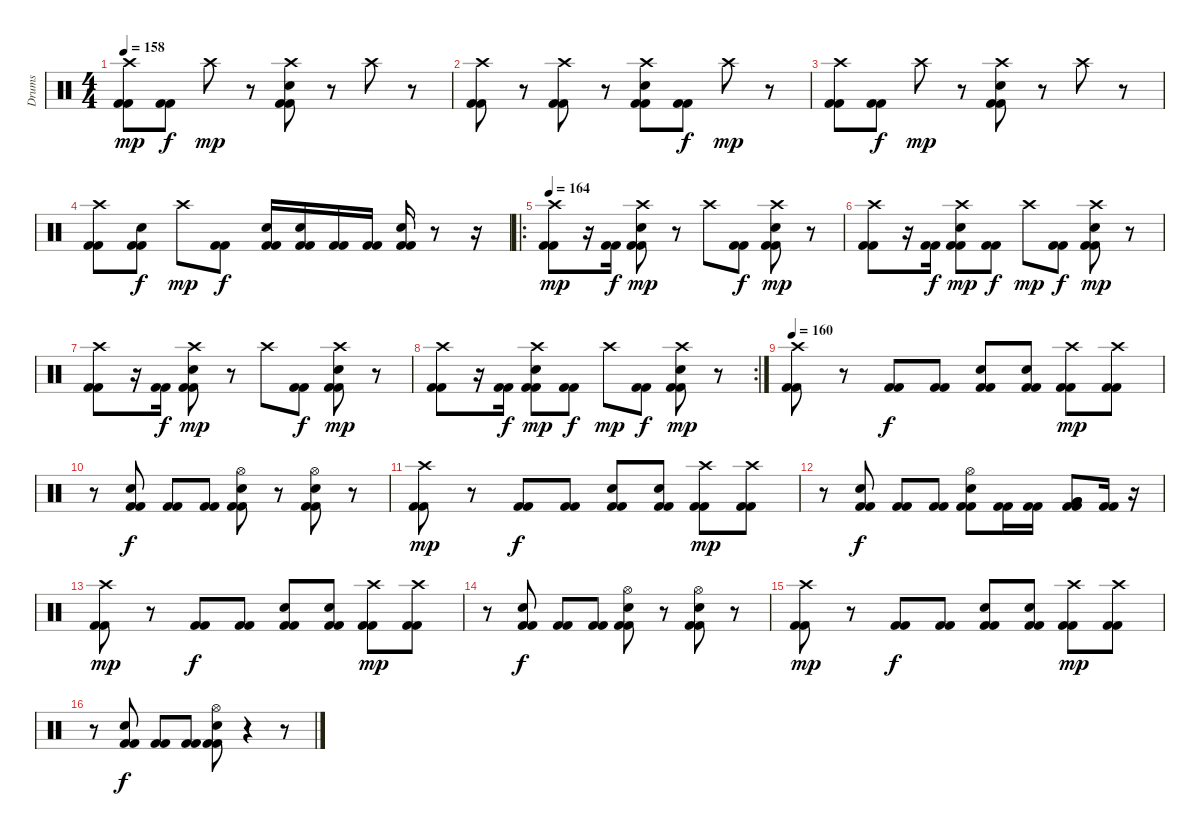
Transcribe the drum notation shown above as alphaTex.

\track ("Drums" "Drums") {instrument percussion}
\staff {score}
\articulation defaults
\ts (4 4)
\tempo 158
\clef neutral
\ks c
("Crash high (hit)" "Kick (hit) 2" "Kick (hit) 2").8{dy mp} ("Kick (hit) 2" "Kick (hit) 2").8{dy f} "Crash high (hit)".8{dy mp} r.8 ("Crash high (hit)" "Snare (hit) 2" "Kick (hit) 2" "Kick (hit) 2").8 r.8 "Crash high (hit)".8 r.8 |
("Crash high (hit)" "Kick (hit) 2" "Kick (hit) 2").8 r.8 ("Crash high (hit)" "Kick (hit) 2" "Kick (hit) 2").8 r.8 ("Crash high (hit)" "Snare (hit) 2" "Kick (hit) 2" "Kick (hit) 2").8 ("Kick (hit) 2" "Kick (hit) 2").8{dy f} "Crash high (hit)".8{dy mp} r.8 |
("Crash high (hit)" "Kick (hit) 2" "Kick (hit) 2").8 ("Kick (hit) 2" "Kick (hit) 2").8{dy f} "Crash high (hit)".8{dy mp} r.8 ("Crash high (hit)" "Snare (hit) 2" "Kick (hit) 2" "Kick (hit) 2").8 r.8 "Crash high (hit)".8 r.8 |
("Crash high (hit)" "Kick (hit) 2" "Kick (hit) 2").8 ("Snare (hit) 2" "Kick (hit) 2" "Kick (hit) 2").8{dy f} "Crash high (hit)".8{dy mp} ("Kick (hit) 2" "Kick (hit) 2").8{dy f} ("Snare (hit) 2" "Kick (hit) 2" "Kick (hit) 2").16 ("Snare (hit) 2" "Kick (hit) 2" "Kick (hit) 2").16 ("Kick (hit) 2" "Kick (hit) 2").16 ("Kick (hit) 2" "Kick (hit) 2").16 ("Snare (hit) 2" "Kick (hit) 2" "Kick (hit) 2").16 r.8 r.16 |
\ro
\tempo 164
("Crash high (hit)" "Kick (hit) 2" "Kick (hit) 2").8{dy mp} r.16 ("Kick (hit) 2" "Kick (hit) 2").16{dy f} ("Crash high (hit)" "Snare (hit) 2" "Kick (hit) 2" "Kick (hit) 2").8{dy mp} r.8 "Crash high (hit)".8 ("Kick (hit) 2" "Kick (hit) 2").8{dy f} ("Crash high (hit)" "Snare (hit) 2" "Kick (hit) 2" "Kick (hit) 2").8{dy mp} r.8 |
("Crash high (hit)" "Kick (hit) 2" "Kick (hit) 2").8 r.16 ("Kick (hit) 2" "Kick (hit) 2").16{dy f} ("Crash high (hit)" "Snare (hit) 2" "Kick (hit) 2" "Kick (hit) 2").8{dy mp} ("Kick (hit) 2" "Kick (hit) 2").8{dy f} "Crash high (hit)".8{dy mp} ("Kick (hit) 2" "Kick (hit) 2").8{dy f} ("Crash high (hit)" "Snare (hit) 2" "Kick (hit) 2" "Kick (hit) 2").8{dy mp} r.8 |
("Crash high (hit)" "Kick (hit) 2" "Kick (hit) 2").8 r.16 ("Kick (hit) 2" "Kick (hit) 2").16{dy f} ("Crash high (hit)" "Snare (hit) 2" "Kick (hit) 2" "Kick (hit) 2").8{dy mp} r.8 "Crash high (hit)".8 ("Kick (hit) 2" "Kick (hit) 2").8{dy f} ("Crash high (hit)" "Snare (hit) 2" "Kick (hit) 2" "Kick (hit) 2").8{dy mp} r.8 |
\rc 2
("Crash high (hit)" "Kick (hit) 2" "Kick (hit) 2").8 r.16 ("Kick (hit) 2" "Kick (hit) 2").16{dy f} ("Crash high (hit)" "Snare (hit) 2" "Kick (hit) 2" "Kick (hit) 2").8{dy mp} ("Kick (hit) 2" "Kick (hit) 2").8{dy f} "Crash high (hit)".8{dy mp} ("Kick (hit) 2" "Kick (hit) 2").8{dy f} ("Crash high (hit)" "Snare (hit) 2" "Kick (hit) 2" "Kick (hit) 2").8{dy mp} r.8 |
\tempo 160
("Crash high (hit)" "Kick (hit) 2" "Kick (hit) 2").8 r.8 ("Kick (hit) 2" "Kick (hit) 2").8{dy f} ("Kick (hit) 2" "Kick (hit) 2").8 ("Snare (hit) 2" "Kick (hit) 2" "Kick (hit) 2").8 ("Snare (hit) 2" "Kick (hit) 2" "Kick (hit) 2").8 ("Crash high (hit)" "Kick (hit) 2" "Kick (hit) 2").8{dy mp} ("Crash high (hit)" "Kick (hit) 2" "Kick (hit) 2").8 |
r.8 ("Snare (hit) 2" "Kick (hit) 2" "Kick (hit) 2").8{dy f} ("Kick (hit) 2" "Kick (hit) 2").8 ("Kick (hit) 2" "Kick (hit) 2").8 ("Hi-Hat (open)" "Snare (hit) 2" "Kick (hit) 2" "Kick (hit) 2").8 r.8 ("Hi-Hat (open)" "Snare (hit) 2" "Kick (hit) 2" "Kick (hit) 2").8 r.8 |
("Crash high (hit)" "Kick (hit) 2" "Kick (hit) 2").8{dy mp} r.8 ("Kick (hit) 2" "Kick (hit) 2").8{dy f} ("Kick (hit) 2" "Kick (hit) 2").8 ("Snare (hit) 2" "Kick (hit) 2" "Kick (hit) 2").8 ("Snare (hit) 2" "Kick (hit) 2" "Kick (hit) 2").8 ("Crash high (hit)" "Kick (hit) 2" "Kick (hit) 2").8{dy mp} ("Crash high (hit)" "Kick (hit) 2" "Kick (hit) 2").8 |
r.8 ("Snare (hit) 2" "Kick (hit) 2" "Kick (hit) 2").8{dy f} ("Kick (hit) 2" "Kick (hit) 2").8 ("Kick (hit) 2" "Kick (hit) 2").8 ("Hi-Hat (open)" "Snare (hit) 2" "Kick (hit) 2" "Kick (hit) 2").8 ("Kick (hit) 2" "Kick (hit) 2").16 ("Kick (hit) 2" "Kick (hit) 2").16 ("Very Low Tom (hit)" "Very Low Tom (hit)" "Kick (hit) 2" "Kick (hit) 2").8 ("Kick (hit) 2" "Kick (hit) 2").16 r.16 |
("Crash high (hit)" "Kick (hit) 2" "Kick (hit) 2").8{dy mp} r.8 ("Kick (hit) 2" "Kick (hit) 2").8{dy f} ("Kick (hit) 2" "Kick (hit) 2").8 ("Snare (hit) 2" "Kick (hit) 2" "Kick (hit) 2").8 ("Snare (hit) 2" "Kick (hit) 2" "Kick (hit) 2").8 ("Crash high (hit)" "Kick (hit) 2" "Kick (hit) 2").8{dy mp} ("Crash high (hit)" "Kick (hit) 2" "Kick (hit) 2").8 |
r.8 ("Snare (hit) 2" "Kick (hit) 2" "Kick (hit) 2").8{dy f} ("Kick (hit) 2" "Kick (hit) 2").8 ("Kick (hit) 2" "Kick (hit) 2").8 ("Hi-Hat (open)" "Snare (hit) 2" "Kick (hit) 2" "Kick (hit) 2").8 r.8 ("Hi-Hat (open)" "Snare (hit) 2" "Kick (hit) 2" "Kick (hit) 2").8 r.8 |
("Crash high (hit)" "Kick (hit) 2" "Kick (hit) 2").8{dy mp} r.8 ("Kick (hit) 2" "Kick (hit) 2").8{dy f} ("Kick (hit) 2" "Kick (hit) 2").8 ("Snare (hit) 2" "Kick (hit) 2" "Kick (hit) 2").8 ("Snare (hit) 2" "Kick (hit) 2" "Kick (hit) 2").8 ("Crash high (hit)" "Kick (hit) 2" "Kick (hit) 2").8{dy mp} ("Crash high (hit)" "Kick (hit) 2" "Kick (hit) 2").8 |
r.8 ("Snare (hit) 2" "Kick (hit) 2" "Kick (hit) 2").8{dy f} ("Kick (hit) 2" "Kick (hit) 2").8 ("Kick (hit) 2" "Kick (hit) 2").8 ("Hi-Hat (open)" "Snare (hit) 2" "Kick (hit) 2" "Kick (hit) 2").8 r.4 r.8
